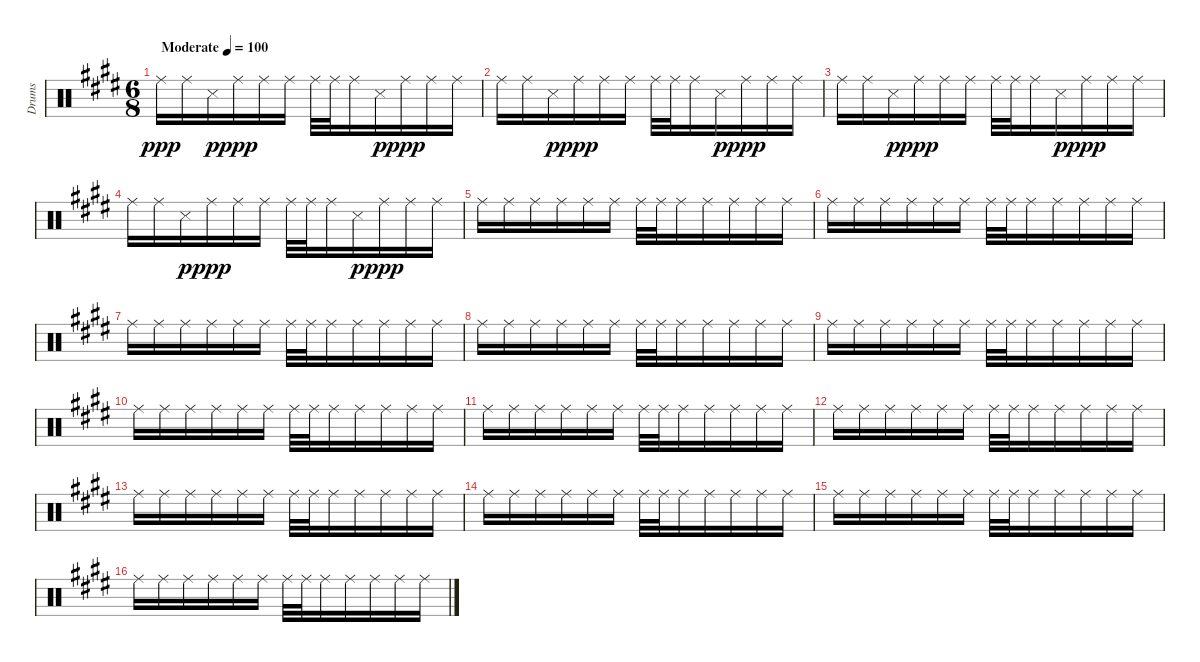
\track ("Drums" "Drums") {instrument percussion}
\staff {score}
\articulation defaults
\ts (6 8)
\tempo (100 "Moderate")
\clef neutral
\ks c#minor "Ride (middle)".16{dy ppp} "Ride (middle)".16 "Snare (side stick) 3".16{dy p} "Ride (middle)".16{dy ppp} "Ride (middle)".16 "Ride (middle)".16 "Ride (middle)".32 "Ride (middle)".32 "Ride (middle)".16 "Snare (side stick) 3".16{dy p} "Ride (middle)".16{dy ppp} "Ride (middle)".16 "Ride (middle)".16
|
"Ride (middle)".16 "Ride (middle)".16 "Snare (side stick) 3".16{dy p} "Ride (middle)".16{dy ppp} "Ride (middle)".16 "Ride (middle)".16 "Ride (middle)".32 "Ride (middle)".32 "Ride (middle)".16 "Snare (side stick) 3".16{dy p} "Ride (middle)".16{dy ppp} "Ride (middle)".16 "Ride (middle)".16 |
"Ride (middle)".16 "Ride (middle)".16 "Snare (side stick) 3".16{dy p} "Ride (middle)".16{dy ppp} "Ride (middle)".16 "Ride (middle)".16 "Ride (middle)".32 "Ride (middle)".32 "Ride (middle)".16 "Snare (side stick) 3".16{dy p} "Ride (middle)".16{dy ppp} "Ride (middle)".16 "Ride (middle)".16 |
"Ride (middle)".16 "Ride (middle)".16 "Snare (side stick) 3".16{dy p} "Ride (middle)".16{dy ppp} "Ride (middle)".16 "Ride (middle)".16 "Ride (middle)".32 "Ride (middle)".32 "Ride (middle)".16 "Snare (side stick) 3".16{dy p} "Ride (middle)".16{dy ppp} "Ride (middle)".16 "Ride (middle)".16 |
"Ride (middle)".16 "Ride (middle)".16 "Ride (middle)".16 "Ride (middle)".16 "Ride (middle)".16 "Ride (middle)".16 "Ride (middle)".32 "Ride (middle)".32 "Ride (middle)".16 "Ride (middle)".16 "Ride (middle)".16 "Ride (middle)".16 "Ride (middle)".16 |
"Ride (middle)".16 "Ride (middle)".16 "Ride (middle)".16 "Ride (middle)".16 "Ride (middle)".16 "Ride (middle)".16 "Ride (middle)".32 "Ride (middle)".32 "Ride (middle)".16 "Ride (middle)".16 "Ride (middle)".16 "Ride (middle)".16 "Ride (middle)".16 |
"Ride (middle)".16 "Ride (middle)".16 "Ride (middle)".16 "Ride (middle)".16 "Ride (middle)".16 "Ride (middle)".16 "Ride (middle)".32 "Ride (middle)".32 "Ride (middle)".16 "Ride (middle)".16 "Ride (middle)".16 "Ride (middle)".16 "Ride (middle)".16 |
"Ride (middle)".16 "Ride (middle)".16 "Ride (middle)".16 "Ride (middle)".16 "Ride (middle)".16 "Ride (middle)".16 "Ride (middle)".32 "Ride (middle)".32 "Ride (middle)".16 "Ride (middle)".16 "Ride (middle)".16 "Ride (middle)".16 "Ride (middle)".16 |
"Ride (middle)".16 "Ride (middle)".16 "Ride (middle)".16 "Ride (middle)".16 "Ride (middle)".16 "Ride (middle)".16 "Ride (middle)".32 "Ride (middle)".32 "Ride (middle)".16 "Ride (middle)".16 "Ride (middle)".16 "Ride (middle)".16 "Ride (middle)".16 |
"Ride (middle)".16 "Ride (middle)".16 "Ride (middle)".16 "Ride (middle)".16 "Ride (middle)".16 "Ride (middle)".16 "Ride (middle)".32 "Ride (middle)".32 "Ride (middle)".16 "Ride (middle)".16 "Ride (middle)".16 "Ride (middle)".16 "Ride (middle)".16 |
"Ride (middle)".16 "Ride (middle)".16 "Ride (middle)".16 "Ride (middle)".16 "Ride (middle)".16 "Ride (middle)".16 "Ride (middle)".32 "Ride (middle)".32 "Ride (middle)".16 "Ride (middle)".16 "Ride (middle)".16 "Ride (middle)".16 "Ride (middle)".16 |
"Ride (middle)".16 "Ride (middle)".16 "Ride (middle)".16 "Ride (middle)".16 "Ride (middle)".16 "Ride (middle)".16 "Ride (middle)".32 "Ride (middle)".32 "Ride (middle)".16 "Ride (middle)".16 "Ride (middle)".16 "Ride (middle)".16 "Ride (middle)".16 |
"Ride (middle)".16 "Ride (middle)".16 "Ride (middle)".16 "Ride (middle)".16 "Ride (middle)".16 "Ride (middle)".16 "Ride (middle)".32 "Ride (middle)".32 "Ride (middle)".16 "Ride (middle)".16 "Ride (middle)".16 "Ride (middle)".16 "Ride (middle)".16 |
"Ride (middle)".16 "Ride (middle)".16 "Ride (middle)".16 "Ride (middle)".16 "Ride (middle)".16 "Ride (middle)".16 "Ride (middle)".32 "Ride (middle)".32 "Ride (middle)".16 "Ride (middle)".16 "Ride (middle)".16 "Ride (middle)".16 "Ride (middle)".16 |
"Ride (middle)".16 "Ride (middle)".16 "Ride (middle)".16 "Ride (middle)".16 "Ride (middle)".16 "Ride (middle)".16 "Ride (middle)".32 "Ride (middle)".32 "Ride (middle)".16 "Ride (middle)".16 "Ride (middle)".16 "Ride (middle)".16 "Ride (middle)".16 |
"Ride (middle)".16 "Ride (middle)".16 "Ride (middle)".16 "Ride (middle)".16 "Ride (middle)".16 "Ride (middle)".16 "Ride (middle)".32 "Ride (middle)".32 "Ride (middle)".16 "Ride (middle)".16 "Ride (middle)".16 "Ride (middle)".16 "Ride (middle)".16
